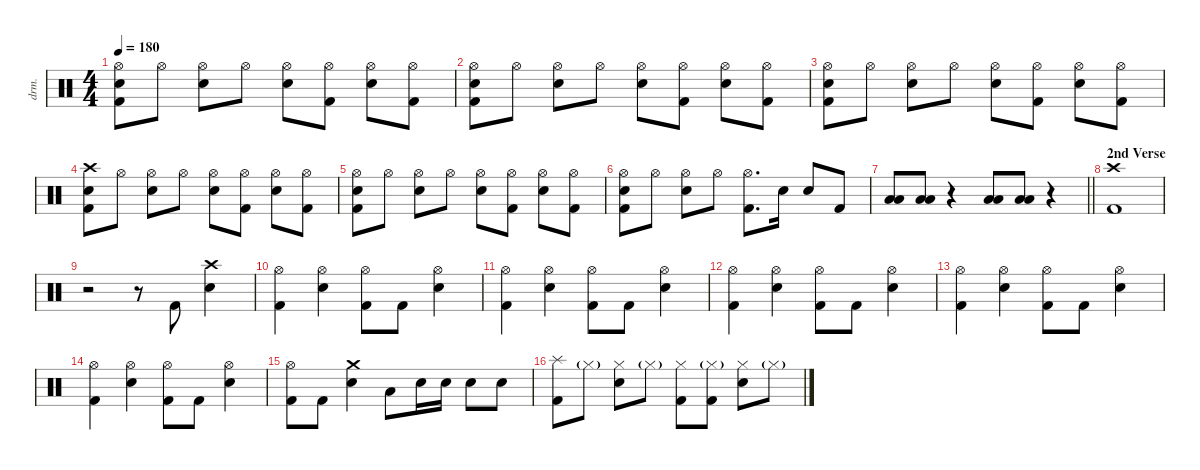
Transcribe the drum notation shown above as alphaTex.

\defaultSystemsLayout 4
\hideDynamics
\bracketExtendMode nobrackets
\otherSystemsTrackNameOrientation horizontal
\track ("Drums: Ritsu Tainaka" "drm.") {instrument percussion}
\staff {score}
\articulation defaults
\ts (4 4)
\tempo 180
\clef neutral
\ks c
("Hi-Hat (open)" "Snare (hit) 2" "Kick (hit) 2").8{dy f beam Down} "Hi-Hat (open)".8{beam Down} ("Hi-Hat (open)" "Snare (hit) 2").8{beam Down} "Hi-Hat (open)".8{beam Down} ("Hi-Hat (open)" "Snare (hit) 2").8{beam Down} ("Hi-Hat (open)" "Kick (hit) 2").8{beam Down} ("Hi-Hat (open)" "Snare (hit) 2").8{beam Down} ("Hi-Hat (open)" "Kick (hit) 2").8{beam Down} |
("Hi-Hat (open)" "Snare (hit) 2" "Kick (hit) 2").8{beam Down} "Hi-Hat (open)".8{beam Down} ("Hi-Hat (open)" "Snare (hit) 2").8{beam Down} "Hi-Hat (open)".8{beam Down} ("Hi-Hat (open)" "Snare (hit) 2").8{beam Down} ("Hi-Hat (open)" "Kick (hit) 2").8{beam Down} ("Hi-Hat (open)" "Snare (hit) 2").8{beam Down} ("Hi-Hat (open)" "Kick (hit) 2").8{beam Down} |
("Hi-Hat (open)" "Snare (hit) 2" "Kick (hit) 2").8{beam Down} "Hi-Hat (open)".8{beam Down} ("Hi-Hat (open)" "Snare (hit) 2").8{beam Down} "Hi-Hat (open)".8{beam Down} ("Hi-Hat (open)" "Snare (hit) 2").8{beam Down} ("Hi-Hat (open)" "Kick (hit) 2").8{beam Down} ("Hi-Hat (open)" "Snare (hit) 2").8{beam Down} ("Hi-Hat (open)" "Kick (hit) 2").8{beam Down} |
("Crash high (hit)" "Snare (hit) 2" "Kick (hit) 2").8{beam Down} "Hi-Hat (open)".8{beam Down} ("Hi-Hat (open)" "Snare (hit) 2").8{beam Down} "Hi-Hat (open)".8{beam Down} ("Hi-Hat (open)" "Snare (hit) 2").8{beam Down} ("Hi-Hat (open)" "Kick (hit) 2").8{beam Down} ("Hi-Hat (open)" "Snare (hit) 2").8{beam Down} ("Hi-Hat (open)" "Kick (hit) 2").8{beam Down} |
("Hi-Hat (open)" "Snare (hit) 2" "Kick (hit) 2").8{beam Down} "Hi-Hat (open)".8{beam Down} ("Hi-Hat (open)" "Snare (hit) 2").8{beam Down} "Hi-Hat (open)".8{beam Down} ("Hi-Hat (open)" "Snare (hit) 2").8{beam Down} ("Hi-Hat (open)" "Kick (hit) 2").8{beam Down} ("Hi-Hat (open)" "Snare (hit) 2").8{beam Down} ("Hi-Hat (open)" "Kick (hit) 2").8{beam Down} |
("Hi-Hat (open)" "Snare (hit) 2" "Kick (hit) 2").8{beam Down} "Hi-Hat (open)".8{beam Down} ("Hi-Hat (open)" "Snare (hit) 2").8{beam Down} "Hi-Hat (open)".8{beam Down} ("Hi-Hat (open)" "Kick (hit) 2").8{d beam Down} "Snare (hit) 2".16{beam Down} "Snare (hit) 2".8{beam Up} "Kick (hit) 2".8{beam Up} |
\barLineRight lightlight
("Low Tom (hit)" "Low Floor Tom (hit)").8{beam Up} ("Low Tom (hit)" "Low Floor Tom (hit)").8{beam Up} r.4{beam Up} ("Low Tom (hit)" "Low Floor Tom (hit)").8{beam Up} ("Low Tom (hit)" "Low Floor Tom (hit)").8{beam Up} r.4{beam Up} |
\section ("" "2nd Verse")
("Crash high (hit)" "Kick (hit) 2").1{beam Down} |
r.2{beam Down} r.8{beam Down} "Kick (hit) 2".8{beam Up} ("Crash high (hit)" "Snare (hit) 2").4{beam Down} |
("Hi-Hat (open)" "Kick (hit) 2").4{beam Down} ("Hi-Hat (open)" "Snare (hit) 2").4{beam Down} ("Hi-Hat (open)" "Kick (hit) 2").8{beam Down} "Kick (hit) 2".8{beam Down} ("Hi-Hat (open)" "Snare (hit) 2").4{beam Down} |
("Hi-Hat (open)" "Kick (hit) 2").4{beam Down} ("Hi-Hat (open)" "Snare (hit) 2").4{beam Down} ("Hi-Hat (open)" "Kick (hit) 2").8{beam Down} "Kick (hit) 2".8{beam Down} ("Hi-Hat (open)" "Snare (hit) 2").4{beam Down} |
("Hi-Hat (open)" "Kick (hit) 2").4{beam Down} ("Hi-Hat (open)" "Snare (hit) 2").4{beam Down} ("Hi-Hat (open)" "Kick (hit) 2").8{beam Down} "Kick (hit) 2".8{beam Down} ("Hi-Hat (open)" "Snare (hit) 2").4{beam Down} |
("Hi-Hat (open)" "Kick (hit) 2").4{beam Down} ("Hi-Hat (open)" "Snare (hit) 2").4{beam Down} ("Hi-Hat (open)" "Kick (hit) 2").8{beam Down} "Kick (hit) 2".8{beam Down} ("Hi-Hat (open)" "Snare (hit) 2").4{beam Down} |
("Hi-Hat (open)" "Kick (hit) 2").4{beam Down} ("Hi-Hat (open)" "Snare (hit) 2").4{beam Down} ("Hi-Hat (open)" "Kick (hit) 2").8{beam Down} "Kick (hit) 2".8{beam Down} ("Hi-Hat (open)" "Snare (hit) 2").4{beam Down} |
("Hi-Hat (open)" "Kick (hit) 2").8{beam Down} "Kick (hit) 2".8{beam Down} ("Crash medium (hit)" "Snare (hit) 2").4{beam Down} "Low Tom (hit)".8{beam Down} "Snare (hit) 2".16{beam Down} "Snare (hit) 2".16{beam Down} "Snare (hit) 2".8{beam Down} "Snare (hit) 2".8{beam Down} |
("Splash (hit)" "Kick (hit) 2").8{beam Down} "Hi-Hat (closed)"{g}.8{dy mf beam Down} ("Hi-Hat (closed)" "Snare (hit) 2").8{dy f beam Down} "Hi-Hat (closed)"{g}.8{dy mf beam Down} ("Hi-Hat (closed)" "Kick (hit) 2").8{dy f beam Down} ("Hi-Hat (closed)"{g} "Kick (hit) 2").8{beam Down} ("Hi-Hat (closed)" "Snare (hit) 2").8{beam Down} "Hi-Hat (closed)"{g}.8{dy mf beam Down}
